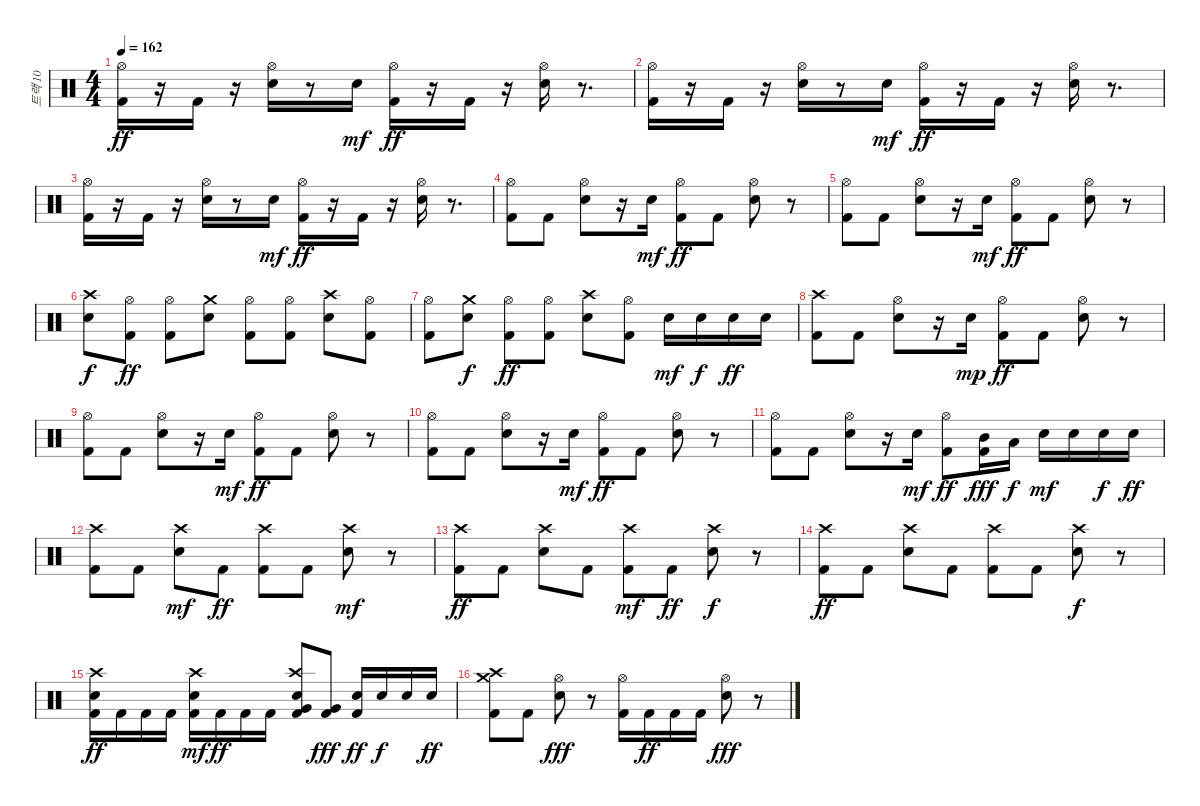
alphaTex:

\track ("트랙 10" "트랙 10") {instrument percussion}
\staff {score}
\articulation defaults
\ts (4 4)
\tempo 162
\clef neutral
\ks c
("Hi-Hat (open)" "Kick (hit) 2").16{dy ff} r.16 "Kick (hit) 2".16 r.16 ("Hi-Hat (open)" "Electric Snare (hit)").16 r.8 "Electric Snare (hit)".16{dy mf} ("Hi-Hat (open)" "Kick (hit) 2").16{dy ff} r.16 "Kick (hit) 2".16 r.16 ("Hi-Hat (open)" "Electric Snare (hit)").16 r.8{d} |
("Hi-Hat (open)" "Kick (hit) 2").16 r.16 "Kick (hit) 2".16 r.16 ("Hi-Hat (open)" "Electric Snare (hit)").16 r.8 "Electric Snare (hit)".16{dy mf} ("Hi-Hat (open)" "Kick (hit) 2").16{dy ff} r.16 "Kick (hit) 2".16 r.16 ("Hi-Hat (open)" "Electric Snare (hit)").16 r.8{d} |
("Hi-Hat (open)" "Kick (hit) 2").16 r.16 "Kick (hit) 2".16 r.16 ("Hi-Hat (open)" "Electric Snare (hit)").16 r.8 "Electric Snare (hit)".16{dy mf} ("Hi-Hat (open)" "Kick (hit) 2").16{dy ff} r.16 "Kick (hit) 2".16 r.16 ("Hi-Hat (open)" "Electric Snare (hit)").16 r.8{d} |
("Hi-Hat (open)" "Kick (hit) 2").8 "Kick (hit) 2".8 ("Hi-Hat (open)" "Electric Snare (hit)").8 r.16 "Electric Snare (hit)".16{dy mf} ("Hi-Hat (open)" "Kick (hit) 2").8{dy ff} "Kick (hit) 2".8 ("Hi-Hat (open)" "Electric Snare (hit)").8 r.8 |
("Hi-Hat (open)" "Kick (hit) 2").8 "Kick (hit) 2".8 ("Hi-Hat (open)" "Electric Snare (hit)").8 r.16 "Electric Snare (hit)".16{dy mf} ("Hi-Hat (open)" "Kick (hit) 2").8{dy ff} "Kick (hit) 2".8 ("Hi-Hat (open)" "Electric Snare (hit)").8 r.8 |
("Electric Snare (hit)" "Crash high (hit)").8{dy f} ("Hi-Hat (open)" "Kick (hit) 2").8{dy ff} ("Hi-Hat (open)" "Kick (hit) 2").8 ("Electric Snare (hit)" "Crash medium (hit)").8 ("Hi-Hat (open)" "Kick (hit) 2").8 ("Hi-Hat (open)" "Kick (hit) 2").8 ("Electric Snare (hit)" "Crash high (hit)").8 ("Hi-Hat (open)" "Kick (hit) 2").8 |
("Hi-Hat (open)" "Kick (hit) 2").8 ("Electric Snare (hit)" "Crash medium (hit)").8{dy f} ("Hi-Hat (open)" "Kick (hit) 2").8{dy ff} ("Hi-Hat (open)" "Kick (hit) 2").8 ("Electric Snare (hit)" "Crash high (hit)").8 ("Hi-Hat (open)" "Kick (hit) 2").8 "Electric Snare (hit)".16{dy mf} "Electric Snare (hit)".16{dy f} "Electric Snare (hit)".16{dy ff} "Electric Snare (hit)".16 |
("Kick (hit) 2" "Crash high (hit)").8 "Kick (hit) 2".8 ("Hi-Hat (open)" "Electric Snare (hit)").8 r.16 "Electric Snare (hit)".16{dy mp} ("Hi-Hat (open)" "Kick (hit) 2").8{dy ff} "Kick (hit) 2".8 ("Hi-Hat (open)" "Electric Snare (hit)").8 r.8 |
("Hi-Hat (open)" "Kick (hit) 2").8 "Kick (hit) 2".8 ("Hi-Hat (open)" "Electric Snare (hit)").8 r.16 "Electric Snare (hit)".16{dy mf} ("Hi-Hat (open)" "Kick (hit) 2").8{dy ff} "Kick (hit) 2".8 ("Hi-Hat (open)" "Electric Snare (hit)").8 r.8 |
("Hi-Hat (open)" "Kick (hit) 2").8 "Kick (hit) 2".8 ("Hi-Hat (open)" "Electric Snare (hit)").8 r.16 "Electric Snare (hit)".16{dy mf} ("Hi-Hat (open)" "Kick (hit) 2").8{dy ff} "Kick (hit) 2".8 ("Hi-Hat (open)" "Electric Snare (hit)").8 r.8 |
("Hi-Hat (open)" "Kick (hit) 2").8 "Kick (hit) 2".8 ("Hi-Hat (open)" "Electric Snare (hit)").8 r.16 "Electric Snare (hit)".16{dy mf} ("Hi-Hat (open)" "Kick (hit) 2").8{dy ff} ("Kick (hit) 2" "Mid Tom (hit)").16{dy fff} "Low Tom (hit)".16{dy f} "Electric Snare (hit)".16{dy mf} "Electric Snare (hit)".16 "Electric Snare (hit)".16{dy f} "Electric Snare (hit)".16{dy ff} |
("Kick (hit) 2" "Crash high (hit)").8 "Kick (hit) 2".8 ("Electric Snare (hit)" "Crash high (hit)").8{dy mf} "Kick (hit) 2".8{dy ff} ("Kick (hit) 2" "Crash high (hit)").8 "Kick (hit) 2".8 ("Electric Snare (hit)" "Crash high (hit)").8{dy mf} r.8 |
("Kick (hit) 2" "Crash high (hit)").8{dy ff} "Kick (hit) 2".8 ("Electric Snare (hit)" "Crash high (hit)").8 "Kick (hit) 2".8 ("Kick (hit) 2" "Crash high (hit)").8{dy mf} "Kick (hit) 2".8{dy ff} ("Electric Snare (hit)" "Crash high (hit)").8{dy f} r.8 |
("Kick (hit) 2" "Crash high (hit)").8{dy ff} "Kick (hit) 2".8 ("Electric Snare (hit)" "Crash high (hit)").8 "Kick (hit) 2".8 ("Kick (hit) 2" "Crash high (hit)").8 "Kick (hit) 2".8 ("Electric Snare (hit)" "Crash high (hit)").8{dy f} r.8 |
("Kick (hit) 2" "Electric Snare (hit)" "Crash high (hit)").16{dy ff} "Kick (hit) 2".16 "Kick (hit) 2".16 "Kick (hit) 2".16 ("Kick (hit) 2" "Electric Snare (hit)" "Crash high (hit)").16{dy mf} "Kick (hit) 2".16{dy ff} "Kick (hit) 2".16 "Kick (hit) 2".16 ("Kick (hit) 2" "Electric Snare (hit)" "Very Low Tom (hit)" "Crash high (hit)").8 ("Kick (hit) 2" "Very Low Tom (hit)").8{dy fff} ("Kick (hit) 2" "Electric Snare (hit)").16{dy ff} "Electric Snare (hit)".16{dy f} "Electric Snare (hit)".16 "Electric Snare (hit)".16{dy ff} |
("Kick (hit) 2" "Crash medium (hit)" "Crash high (hit)").8 "Kick (hit) 2".8 ("Electric Snare (hit)" "Hi-Hat (open)").8{dy fff} r.8 ("Kick (hit) 2" "Hi-Hat (open)").16 "Kick (hit) 2".16{dy ff} "Kick (hit) 2".16 "Kick (hit) 2".16 ("Electric Snare (hit)" "Hi-Hat (open)").8{dy fff} r.8
